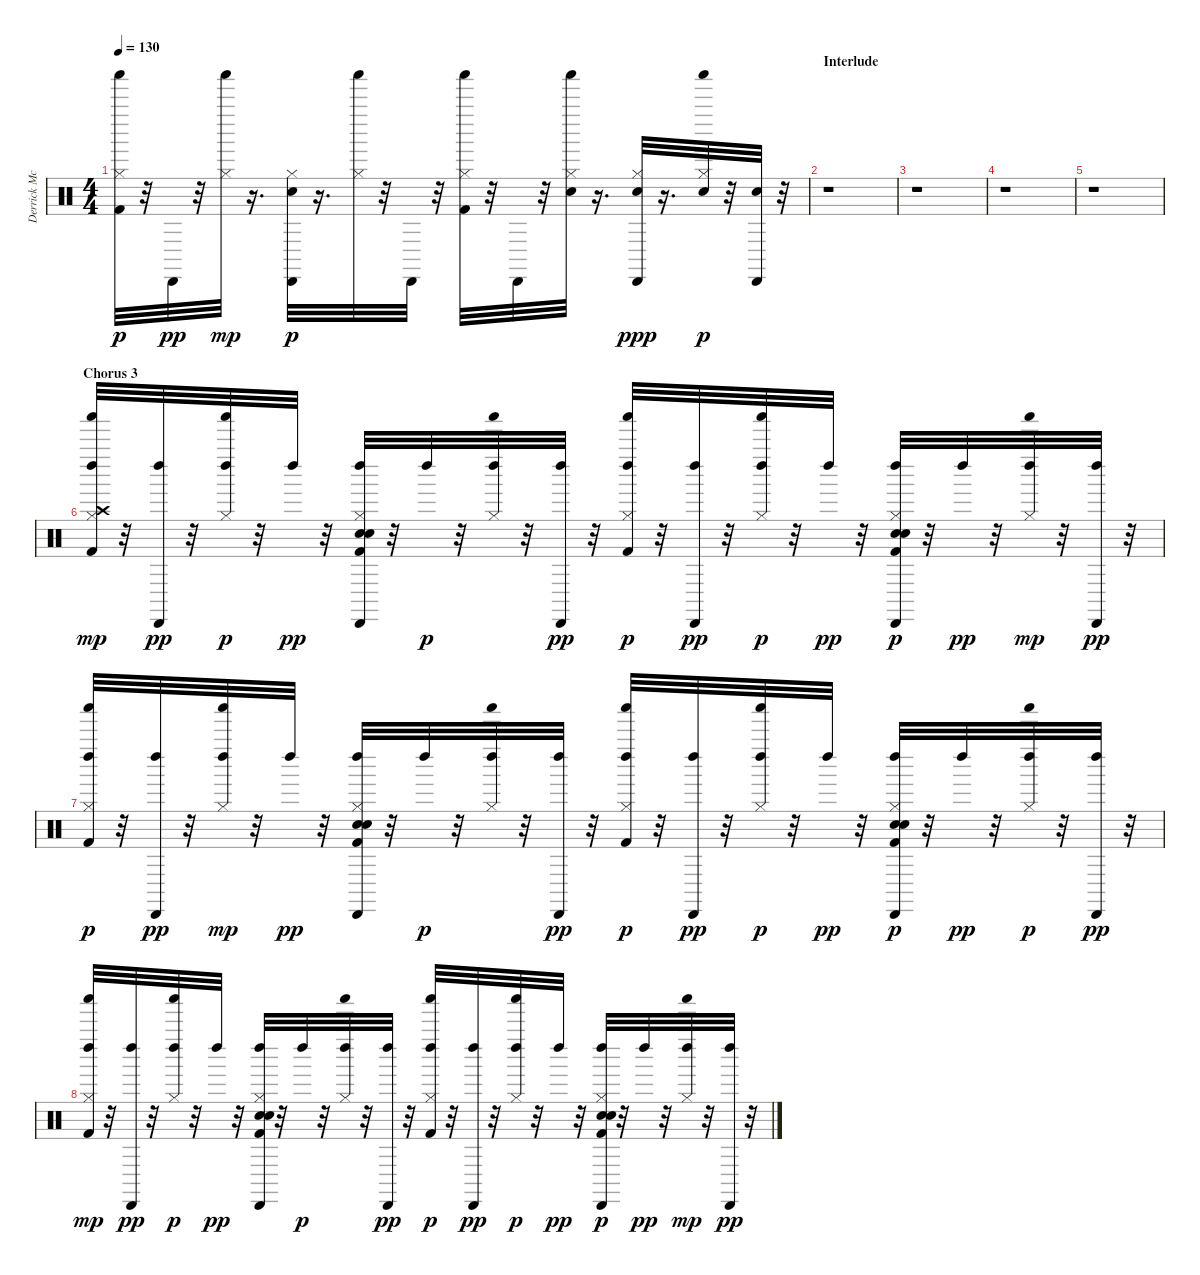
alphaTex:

\track ("Derrick McKenzie\\Sola Akingbola - Drums" "Derrick Mc") {instrument percussion}
\staff {score}
\articulation defaults
\ts (4 4)
\tempo 130
\clef neutral
\ks c
("Kick (hit) 2" "Hi-Hat (closed)" "Shaker (hit)").32{dy p} r.32 "Cabasa (hit)".32{dy pp} r.32 ("Hi-Hat (closed)" "Shaker (hit)").32{dy mp} r.16{d} ("Electric Snare (hit)" "Hi-Hat (closed)" "Cabasa (hit)").32{dy p} r.16{d} ("Hi-Hat (closed)" "Shaker (hit)").32 r.32 "Cabasa (hit)".32 r.32 ("Kick (hit) 2" "Hi-Hat (closed)" "Shaker (hit)").32 r.32 "Cabasa (hit)".32 r.32 ("Electric Snare (hit)" "Hi-Hat (closed)" "Shaker (hit)").32 r.16{d} ("Electric Snare (hit)" "Hi-Hat (closed)" "Cabasa (hit)").32{dy ppp} r.16{d} ("Electric Snare (hit)" "Hi-Hat (closed)" "Shaker (hit)").32{dy p} r.32 ("Electric Snare (hit)" "Cabasa (hit)").32 r.32 |
\section ("" "Interlude")
r.1 |
r.1 |
r.1 |
r.1 |
\section ("" "Chorus 3")
("Kick (hit) 2" "Hi-Hat (closed)" "Crash high (hit)" "Left Maraca (hit)" "Shaker (hit)").32{dy mp} r.32 ("Cabasa (hit)" "Left Maraca (hit)").32{dy pp} r.32 ("Hi-Hat (closed)" "Left Maraca (hit)" "Shaker (hit)").32{dy p} r.32 "Left Maraca (hit)".32{dy pp} r.32 ("Kick (hit) 2" "Hand Clap (hit)" "Electric Snare (hit)" "Hi-Hat (closed)" "Cabasa (hit)" "Left Maraca (hit)").32 r.32 "Left Maraca (hit)".32{dy p} r.32 ("Hi-Hat (closed)" "Left Maraca (hit)" "Shaker (hit)").32 r.32 ("Cabasa (hit)" "Left Maraca (hit)").32{dy pp} r.32 ("Kick (hit) 2" "Hi-Hat (closed)" "Left Maraca (hit)" "Shaker (hit)").32{dy p} r.32 ("Cabasa (hit)" "Left Maraca (hit)").32{dy pp} r.32 ("Hi-Hat (closed)" "Left Maraca (hit)" "Shaker (hit)").32{dy p} r.32 "Left Maraca (hit)".32{dy pp} r.32 ("Kick (hit) 2" "Hand Clap (hit)" "Electric Snare (hit)" "Hi-Hat (closed)" "Cabasa (hit)" "Left Maraca (hit)").32{dy p} r.32 "Left Maraca (hit)".32{dy pp} r.32 ("Hi-Hat (closed)" "Left Maraca (hit)" "Shaker (hit)").32{dy mp} r.32 ("Cabasa (hit)" "Left Maraca (hit)").32{dy pp} r.32 |
("Kick (hit) 2" "Hi-Hat (closed)" "Left Maraca (hit)" "Shaker (hit)").32{dy p} r.32 ("Cabasa (hit)" "Left Maraca (hit)").32{dy pp} r.32 ("Hi-Hat (closed)" "Left Maraca (hit)" "Shaker (hit)").32{dy mp} r.32 "Left Maraca (hit)".32{dy pp} r.32 ("Kick (hit) 2" "Hand Clap (hit)" "Electric Snare (hit)" "Hi-Hat (closed)" "Cabasa (hit)" "Left Maraca (hit)").32 r.32 "Left Maraca (hit)".32{dy p} r.32 ("Hi-Hat (closed)" "Left Maraca (hit)" "Shaker (hit)").32 r.32 ("Cabasa (hit)" "Left Maraca (hit)").32{dy pp} r.32 ("Kick (hit) 2" "Hi-Hat (closed)" "Left Maraca (hit)" "Shaker (hit)").32{dy p} r.32 ("Cabasa (hit)" "Left Maraca (hit)").32{dy pp} r.32 ("Hi-Hat (closed)" "Left Maraca (hit)" "Shaker (hit)").32{dy p} r.32 "Left Maraca (hit)".32{dy pp} r.32 ("Kick (hit) 2" "Hand Clap (hit)" "Electric Snare (hit)" "Hi-Hat (closed)" "Cabasa (hit)" "Left Maraca (hit)").32{dy p} r.32 "Left Maraca (hit)".32{dy pp} r.32 ("Hi-Hat (closed)" "Left Maraca (hit)" "Shaker (hit)").32{dy p} r.32 ("Cabasa (hit)" "Left Maraca (hit)").32{dy pp} r.32 |
("Kick (hit) 2" "Hi-Hat (closed)" "Left Maraca (hit)" "Shaker (hit)").32{dy mp} r.32 ("Cabasa (hit)" "Left Maraca (hit)").32{dy pp} r.32 ("Hi-Hat (closed)" "Left Maraca (hit)" "Shaker (hit)").32{dy p} r.32 "Left Maraca (hit)".32{dy pp} r.32 ("Kick (hit) 2" "Hand Clap (hit)" "Electric Snare (hit)" "Hi-Hat (closed)" "Cabasa (hit)" "Left Maraca (hit)").32 r.32 "Left Maraca (hit)".32{dy p} r.32 ("Hi-Hat (closed)" "Left Maraca (hit)" "Shaker (hit)").32 r.32 ("Cabasa (hit)" "Left Maraca (hit)").32{dy pp} r.32 ("Kick (hit) 2" "Hi-Hat (closed)" "Left Maraca (hit)" "Shaker (hit)").32{dy p} r.32 ("Cabasa (hit)" "Left Maraca (hit)").32{dy pp} r.32 ("Hi-Hat (closed)" "Left Maraca (hit)" "Shaker (hit)").32{dy p} r.32 "Left Maraca (hit)".32{dy pp} r.32 ("Kick (hit) 2" "Hand Clap (hit)" "Electric Snare (hit)" "Hi-Hat (closed)" "Cabasa (hit)" "Left Maraca (hit)").32{dy p} r.32 "Left Maraca (hit)".32{dy pp} r.32 ("Hi-Hat (closed)" "Left Maraca (hit)" "Shaker (hit)").32{dy mp} r.32 ("Cabasa (hit)" "Left Maraca (hit)").32{dy pp} r.32
